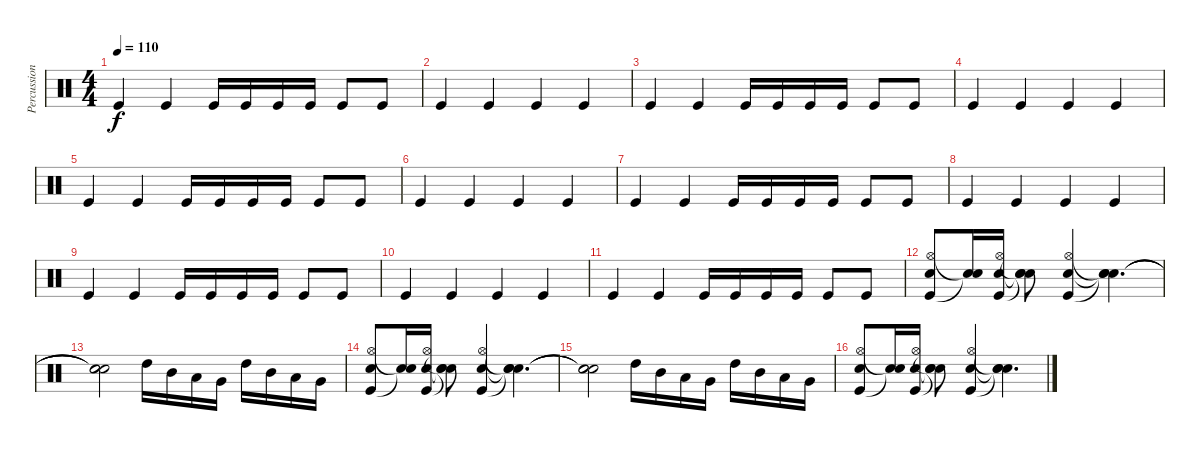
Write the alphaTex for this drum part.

\track ("Percussions" "Percussion") {instrument percussion}
\staff {score}
\articulation defaults
\ts (4 4)
\tempo 110
\clef neutral
\ks c "Kick (hit)".4{dy f} "Kick (hit)".4 "Kick (hit)".16 "Kick (hit)".16 "Kick (hit)".16 "Kick (hit)".16 "Kick (hit)".8 "Kick (hit)".8
|
"Kick (hit)".4 "Kick (hit)".4 "Kick (hit)".4 "Kick (hit)".4 |
"Kick (hit)".4 "Kick (hit)".4 "Kick (hit)".16 "Kick (hit)".16 "Kick (hit)".16 "Kick (hit)".16 "Kick (hit)".8 "Kick (hit)".8 |
"Kick (hit)".4 "Kick (hit)".4 "Kick (hit)".4 "Kick (hit)".4 |
"Kick (hit)".4 "Kick (hit)".4 "Kick (hit)".16 "Kick (hit)".16 "Kick (hit)".16 "Kick (hit)".16 "Kick (hit)".8 "Kick (hit)".8 |
"Kick (hit)".4 "Kick (hit)".4 "Kick (hit)".4 "Kick (hit)".4 |
"Kick (hit)".4 "Kick (hit)".4 "Kick (hit)".16 "Kick (hit)".16 "Kick (hit)".16 "Kick (hit)".16 "Kick (hit)".8 "Kick (hit)".8 |
"Kick (hit)".4 "Kick (hit)".4 "Kick (hit)".4 "Kick (hit)".4 |
"Kick (hit)".4 "Kick (hit)".4 "Kick (hit)".16 "Kick (hit)".16 "Kick (hit)".16 "Kick (hit)".16 "Kick (hit)".8 "Kick (hit)".8 |
"Kick (hit)".4 "Kick (hit)".4 "Kick (hit)".4 "Kick (hit)".4 |
"Kick (hit)".4 "Kick (hit)".4 "Kick (hit)".16 "Kick (hit)".16 "Kick (hit)".16 "Kick (hit)".16 "Kick (hit)".8 "Kick (hit)".8 |
("Hi-Hat (open)" "Kick (hit)" "Snare (hit) 2").8 ("Snare (hit)"{t} "Snare (hit)"{t}).16 ("Hi-Hat (open)" "Kick (hit)" "Snare (hit) 2").16 ("Snare (hit)"{t} "Snare (hit)"{t} "Snare (hit)"{t}).8 ("Hi-Hat (open)" "Kick (hit)" "Snare (hit) 2").4 ("Snare (hit)"{t} "Snare (hit)"{t} "Snare (hit)"{t}).4{d} |
("Snare (hit)"{t} "Snare (hit)"{t} "Snare (hit)"{t}).2 "High Tom (hit)".16 "Mid Tom (hit)".16 "Low Tom (hit)".16 "Very Low Tom (hit)".16 "High Tom (hit)".16 "Mid Tom (hit)".16 "Low Tom (hit)".16 "Very Low Tom (hit)".16 |
("Hi-Hat (open)" "Kick (hit)" "Snare (hit) 2").8 ("Snare (hit)"{t} "Snare (hit)"{t}).16 ("Hi-Hat (open)" "Kick (hit)" "Snare (hit) 2").16 ("Snare (hit)"{t} "Snare (hit)"{t} "Snare (hit)"{t}).8 ("Hi-Hat (open)" "Kick (hit)" "Snare (hit) 2").4 ("Snare (hit)"{t} "Snare (hit)"{t} "Snare (hit)"{t}).4{d} |
("Snare (hit)"{t} "Snare (hit)"{t} "Snare (hit)"{t}).2 "High Tom (hit)".16 "Mid Tom (hit)".16 "Low Tom (hit)".16 "Very Low Tom (hit)".16 "High Tom (hit)".16 "Mid Tom (hit)".16 "Low Tom (hit)".16 "Very Low Tom (hit)".16 |
("Hi-Hat (open)" "Kick (hit)" "Snare (hit) 2").8 ("Snare (hit)"{t} "Snare (hit)"{t}).16 ("Hi-Hat (open)" "Kick (hit)" "Snare (hit) 2").16 ("Snare (hit)"{t} "Snare (hit)"{t} "Snare (hit)"{t}).8 ("Hi-Hat (open)" "Kick (hit)" "Snare (hit) 2").4 ("Snare (hit)"{t} "Snare (hit)"{t} "Snare (hit)"{t}).4{d}
